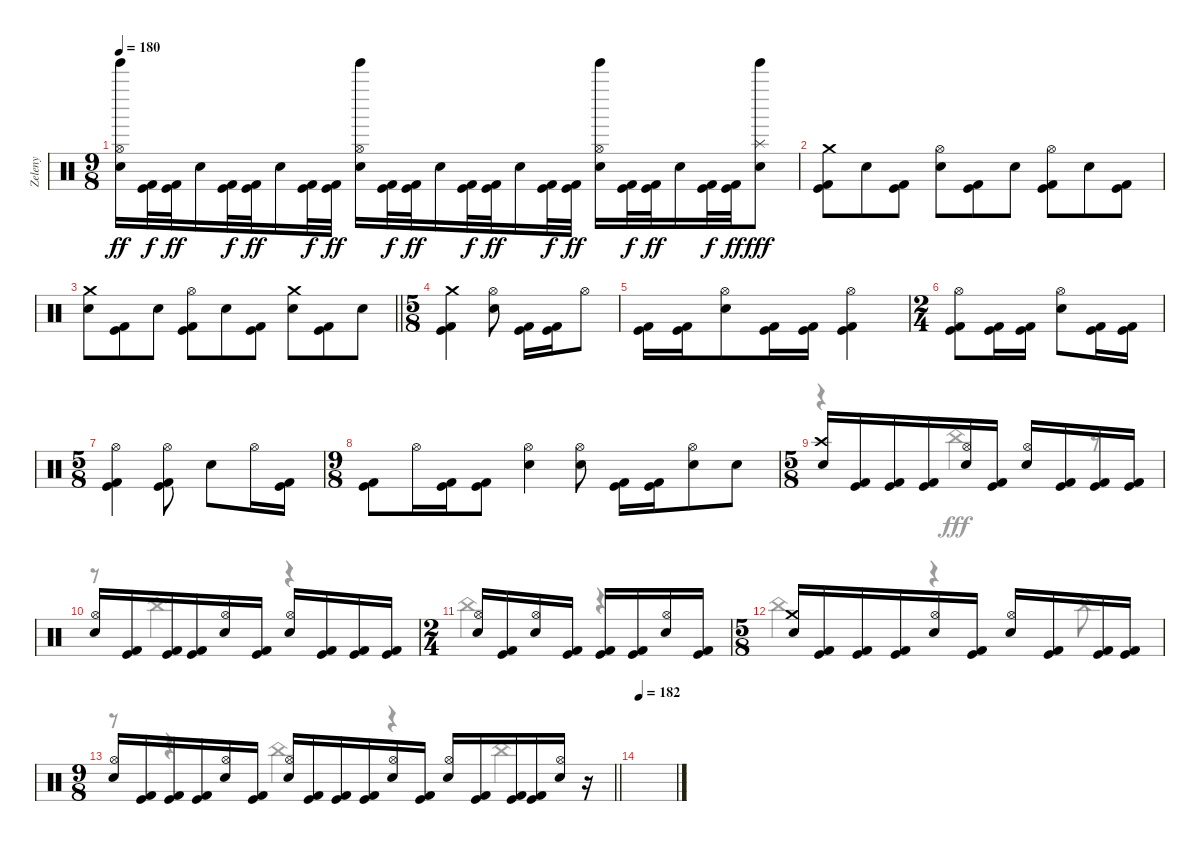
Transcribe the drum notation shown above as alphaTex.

\track ("Zeleny" "Zeleny") {instrument percussion}
\staff {score}
\articulation defaults
\voice
\ts (9 8)
\tempo 180
\clef neutral
\ks c
("Tinkle Bell (hit)" "Hi-Hat (open)" "Snare (hit) 2").16{dy ff} ("Kick (hit)" "Kick (hit) 2").32{dy f} ("Kick (hit)" "Kick (hit) 2").32{dy ff} "Snare (hit) 2".16 ("Kick (hit)" "Kick (hit) 2").32{dy f} ("Kick (hit)" "Kick (hit) 2").32{dy ff} "Snare (hit) 2".16 ("Kick (hit)" "Kick (hit) 2").32{dy f} ("Kick (hit)" "Kick (hit) 2").32{dy ff} ("Tinkle Bell (hit)" "Hi-Hat (open)" "Snare (hit) 2").16 ("Kick (hit)" "Kick (hit) 2").32{dy f} ("Kick (hit)" "Kick (hit) 2").32{dy ff} "Snare (hit) 2".16 ("Kick (hit)" "Kick (hit) 2").32{dy f} ("Kick (hit)" "Kick (hit) 2").32{dy ff} "Snare (hit) 2".16 ("Kick (hit)" "Kick (hit) 2").32{dy f} ("Kick (hit)" "Kick (hit) 2").32{dy ff} ("Tinkle Bell (hit)" "Hi-Hat (open)" "Snare (hit) 2").16 ("Kick (hit)" "Kick (hit) 2").32{dy f} ("Kick (hit)" "Kick (hit) 2").32{dy ff} "Snare (hit) 2".16 ("Kick (hit)" "Kick (hit) 2").32{dy f} ("Kick (hit)" "Kick (hit) 2").32{dy ff} ("Tinkle Bell (hit)" "Splash (hit)" "Snare (hit) 2").8{dy fff} |
("Crash medium (hit)" "Kick (hit)" "Kick (hit) 2").8 "Snare (hit) 2".8 ("Kick (hit)" "Kick (hit) 2").8 ("Hi-Hat (open)" "Snare (hit) 2").8 ("Kick (hit)" "Kick (hit) 2").8 "Snare (hit) 2".8 ("Hi-Hat (open)" "Kick (hit)" "Kick (hit) 2").8 "Snare (hit) 2".8 ("Kick (hit)" "Kick (hit) 2").8 |
\barLineRight lightlight
("Crash medium (hit)" "Snare (hit) 2").8 ("Kick (hit)" "Kick (hit) 2").8 "Snare (hit) 2".8 ("Hi-Hat (open)" "Kick (hit)" "Kick (hit) 2").8 "Snare (hit) 2".8 ("Kick (hit)" "Kick (hit) 2").8 ("Crash medium (hit)" "Snare (hit) 2").8 ("Kick (hit)" "Kick (hit) 2").8 "Snare (hit) 2".8 |
\ts (5 8)
\section ("" "")
("Crash medium (hit)" "Kick (hit)" "Kick (hit) 2").4 ("Hi-Hat (open)" "Snare (hit) 2").8 ("Kick (hit)" "Kick (hit) 2").16 ("Kick (hit)" "Kick (hit) 2").16 "Hi-Hat (open)".8 |
("Kick (hit)" "Kick (hit) 2").16 ("Kick (hit)" "Kick (hit) 2").16 ("Hi-Hat (open)" "Electric Snare (hit)").8 ("Kick (hit)" "Kick (hit) 2").16 ("Kick (hit)" "Kick (hit) 2").16 ("Hi-Hat (open)" "Kick (hit)" "Kick (hit) 2").4 |
\ts (2 4)
("Hi-Hat (open)" "Kick (hit)" "Kick (hit) 2").8 ("Kick (hit)" "Kick (hit) 2").16 ("Kick (hit)" "Kick (hit) 2").16 ("Hi-Hat (open)" "Electric Snare (hit)").8 ("Kick (hit)" "Kick (hit) 2").16 ("Kick (hit)" "Kick (hit) 2").16 |
\ts (5 8)
("Hi-Hat (open)" "Kick (hit)" "Kick (hit) 2").4 ("Hi-Hat (open)" "Kick (hit)" "Kick (hit) 2").8 "Snare (hit) 2".8 "Hi-Hat (open)".16 ("Kick (hit)" "Kick (hit) 2").16 |
\ts (9 8)
("Kick (hit)" "Kick (hit) 2").8 "Hi-Hat (open)".16 ("Kick (hit)" "Kick (hit) 2").16 ("Kick (hit)" "Kick (hit) 2").8 ("Hi-Hat (open)" "Snare (hit) 2").4 ("Hi-Hat (open)" "Snare (hit) 2").8 ("Kick (hit)" "Kick (hit) 2").16 ("Kick (hit)" "Kick (hit) 2").16 ("Hi-Hat (open)" "Snare (hit) 2").8 "Snare (hit) 2".8 |
\ts (5 8)
("Crash high (hit)" "Snare (hit) 2").16 ("Kick (hit)" "Kick (hit) 2").16 ("Kick (hit)" "Kick (hit) 2").16 ("Kick (hit)" "Kick (hit) 2").16 ("Hi-Hat (open)" "Electric Snare (hit)").16 ("Kick (hit)" "Kick (hit) 2").16 ("Hi-Hat (open)" "Electric Snare (hit)").16 ("Kick (hit)" "Kick (hit) 2").16 ("Kick (hit)" "Kick (hit) 2").16 ("Kick (hit)" "Kick (hit) 2").16 |
("Hi-Hat (open)" "Electric Snare (hit)").16 ("Kick (hit)" "Kick (hit) 2").16 ("Kick (hit)" "Kick (hit) 2").16 ("Kick (hit)" "Kick (hit) 2").16 ("Hi-Hat (open)" "Electric Snare (hit)").16 ("Kick (hit)" "Kick (hit) 2").16 ("Hi-Hat (open)" "Electric Snare (hit)").16 ("Kick (hit)" "Kick (hit) 2").16 ("Kick (hit)" "Kick (hit) 2").16 ("Kick (hit)" "Kick (hit) 2").16 |
\ts (2 4)
("Hi-Hat (open)" "Electric Snare (hit)").16 ("Kick (hit)" "Kick (hit) 2").16 ("Hi-Hat (open)" "Electric Snare (hit)").16 ("Kick (hit)" "Kick (hit) 2").16 ("Kick (hit)" "Kick (hit) 2").16 ("Kick (hit)" "Kick (hit) 2").16 ("Hi-Hat (open)" "Electric Snare (hit)").16 ("Kick (hit) 2" "Kick (hit)").16 |
\ts (5 8)
("Crash medium (hit)" "Electric Snare (hit)").16 ("Kick (hit)" "Kick (hit) 2").16 ("Kick (hit)" "Kick (hit) 2").16 ("Kick (hit)" "Kick (hit) 2").16 ("Hi-Hat (open)" "Electric Snare (hit)").16 ("Kick (hit)" "Kick (hit) 2").16 ("Hi-Hat (open)" "Electric Snare (hit)").16 ("Kick (hit)" "Kick (hit) 2").16 ("Kick (hit)" "Kick (hit) 2").16 ("Kick (hit)" "Kick (hit) 2").16 |
\ts (9 8)
\barLineRight lightlight
("Hi-Hat (open)" "Electric Snare (hit)").16 ("Kick (hit)" "Kick (hit) 2").16 ("Kick (hit)" "Kick (hit) 2").16 ("Kick (hit)" "Kick (hit) 2").16 ("Hi-Hat (open)" "Electric Snare (hit)").16 ("Kick (hit)" "Kick (hit) 2").16 ("Hi-Hat (open)" "Electric Snare (hit)").16 ("Kick (hit)" "Kick (hit) 2").16 ("Kick (hit)" "Kick (hit) 2").16 ("Kick (hit)" "Kick (hit) 2").16 ("Hi-Hat (open)" "Electric Snare (hit)").16 ("Kick (hit)" "Kick (hit) 2").16 ("Hi-Hat (open)" "Electric Snare (hit)").16 ("Kick (hit)" "Kick (hit) 2").16 ("Kick (hit)" "Kick (hit) 2").16 ("Kick (hit)" "Kick (hit) 2").16 ("Hi-Hat (open)" "Electric Snare (hit)").16 r.16 |
\section ("" "")
\tempo 176
\tempo 182
|
|
\voice
\clef neutral
\ottava regular
\simile none
\ks c
|
|
\barLineRight lightlight
|
|
|
|
|
|
r.4 "China (hit)".4 r.8 |
r.8 "China (hit)".4 r.4 |
"China (hit)".4 r.4 |
"China (hit)".4 r.4 "China (hit)".8 |
\barLineRight lightlight
r.8 r.4 "China (hit)".4 r.4 "China (hit)".4 |
|
|
